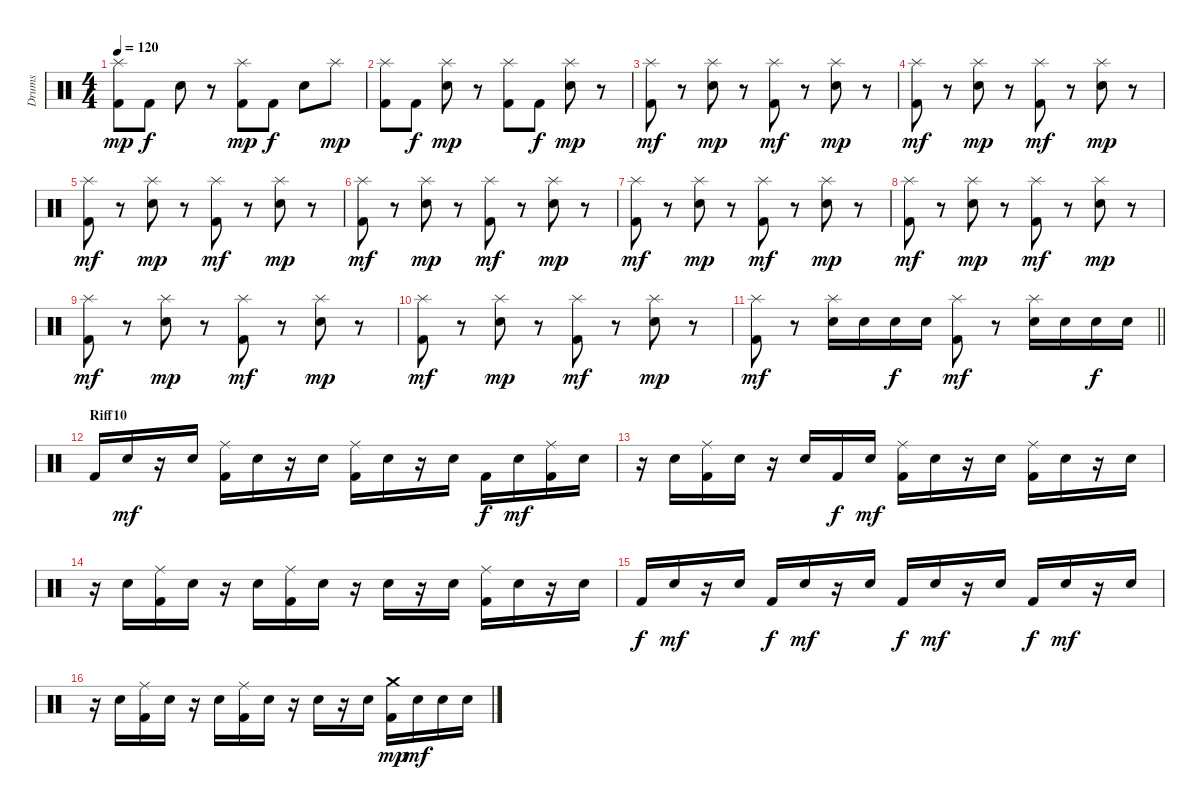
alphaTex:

\track ("Drums" "Drums") {instrument percussion}
\staff {score}
\articulation defaults
\ts (4 4)
\tempo 120
\clef neutral
\ks c
("Kick (hit) 2" "Splash (hit)").8{dy mp} "Kick (hit) 2".8{dy f} "Snare (hit) 2".8 r.8 ("Kick (hit) 2" "Splash (hit)").8{dy mp} "Kick (hit) 2".8{dy f} "Snare (hit) 2".8 "Splash (hit)".8{dy mp} |
("Kick (hit) 2" "Splash (hit)").8 "Kick (hit) 2".8{dy f} ("Splash (hit)" "Snare (hit) 2").8{dy mp} r.8 ("Kick (hit) 2" "Splash (hit)").8 "Kick (hit) 2".8{dy f} ("Splash (hit)" "Snare (hit) 2").8{dy mp} r.8 |
("Kick (hit) 2" "Splash (hit)").8{dy mf} r.8 ("Splash (hit)" "Snare (hit) 2").8{dy mp} r.8 ("Kick (hit) 2" "Splash (hit)").8{dy mf} r.8 ("Splash (hit)" "Snare (hit) 2").8{dy mp} r.8 |
("Kick (hit) 2" "Splash (hit)").8{dy mf} r.8 ("Splash (hit)" "Snare (hit) 2").8{dy mp} r.8 ("Kick (hit) 2" "Splash (hit)").8{dy mf} r.8 ("Splash (hit)" "Snare (hit) 2").8{dy mp} r.8 |
("Kick (hit) 2" "Splash (hit)").8{dy mf} r.8 ("Splash (hit)" "Snare (hit) 2").8{dy mp} r.8 ("Kick (hit) 2" "Splash (hit)").8{dy mf} r.8 ("Splash (hit)" "Snare (hit) 2").8{dy mp} r.8 |
("Kick (hit) 2" "Splash (hit)").8{dy mf} r.8 ("Splash (hit)" "Snare (hit) 2").8{dy mp} r.8 ("Kick (hit) 2" "Splash (hit)").8{dy mf} r.8 ("Splash (hit)" "Snare (hit) 2").8{dy mp} r.8 |
("Kick (hit) 2" "Splash (hit)").8{dy mf} r.8 ("Splash (hit)" "Snare (hit) 2").8{dy mp} r.8 ("Kick (hit) 2" "Splash (hit)").8{dy mf} r.8 ("Splash (hit)" "Snare (hit) 2").8{dy mp} r.8 |
("Kick (hit) 2" "Splash (hit)").8{dy mf} r.8 ("Splash (hit)" "Snare (hit) 2").8{dy mp} r.8 ("Kick (hit) 2" "Splash (hit)").8{dy mf} r.8 ("Splash (hit)" "Snare (hit) 2").8{dy mp} r.8 |
("Kick (hit) 2" "Splash (hit)").8{dy mf} r.8 ("Splash (hit)" "Snare (hit) 2").8{dy mp} r.8 ("Kick (hit) 2" "Splash (hit)").8{dy mf} r.8 ("Splash (hit)" "Snare (hit) 2").8{dy mp} r.8 |
("Kick (hit) 2" "Splash (hit)").8{dy mf} r.8 ("Splash (hit)" "Snare (hit) 2").8{dy mp} r.8 ("Kick (hit) 2" "Splash (hit)").8{dy mf} r.8 ("Splash (hit)" "Snare (hit) 2").8{dy mp} r.8 |
\barLineRight lightlight
("Kick (hit) 2" "Splash (hit)").8{dy mf} r.8 ("Splash (hit)" "Snare (hit) 2").16 "Snare (hit) 2".16 "Snare (hit) 2".16{dy f} "Snare (hit) 2".16 ("Kick (hit) 2" "Splash (hit)").8{dy mf} r.8 ("Splash (hit)" "Snare (hit) 2").16 "Snare (hit) 2".16 "Snare (hit) 2".16{dy f} "Snare (hit) 2".16 |
\section ("" "Riff10")
"Kick (hit) 2".16 "Snare (hit) 2".16{dy mf} r.16 "Snare (hit) 2".16 ("Kick (hit) 2" "Ride (middle)").16 "Snare (hit) 2".16 r.16 "Snare (hit) 2".16 ("Kick (hit) 2" "Ride (middle)").16 "Snare (hit) 2".16 r.16 "Snare (hit) 2".16 "Kick (hit) 2".16{dy f} "Snare (hit) 2".16{dy mf} ("Kick (hit) 2" "Ride (middle)").16 "Snare (hit) 2".16 |
r.16 "Snare (hit) 2".16 ("Kick (hit) 2" "Ride (middle)").16 "Snare (hit) 2".16 r.16 "Snare (hit) 2".16 "Kick (hit) 2".16{dy f} "Snare (hit) 2".16{dy mf} ("Kick (hit) 2" "Ride (middle)").16 "Snare (hit) 2".16 r.16 "Snare (hit) 2".16 ("Kick (hit) 2" "Ride (middle)").16 "Snare (hit) 2".16 r.16 "Snare (hit) 2".16 |
r.16 "Snare (hit) 2".16 ("Kick (hit) 2" "Ride (middle)").16 "Snare (hit) 2".16 r.16 "Snare (hit) 2".16 ("Kick (hit) 2" "Ride (middle)").16 "Snare (hit) 2".16 r.16 "Snare (hit) 2".16 r.16 "Snare (hit) 2".16 ("Kick (hit) 2" "Ride (middle)").16 "Snare (hit) 2".16 r.16 "Snare (hit) 2".16 |
"Kick (hit) 2".16{dy f} "Snare (hit) 2".16{dy mf} r.16 "Snare (hit) 2".16 "Kick (hit) 2".16{dy f} "Snare (hit) 2".16{dy mf} r.16 "Snare (hit) 2".16 "Kick (hit) 2".16{dy f} "Snare (hit) 2".16{dy mf} r.16 "Snare (hit) 2".16 "Kick (hit) 2".16{dy f} "Snare (hit) 2".16{dy mf} r.16 "Snare (hit) 2".16 |
r.16 "Snare (hit) 2".16 ("Kick (hit) 2" "Ride (middle)").16 "Snare (hit) 2".16 r.16 "Snare (hit) 2".16 ("Kick (hit) 2" "Ride (middle)").16 "Snare (hit) 2".16 r.16 "Snare (hit) 2".16 r.16 "Snare (hit) 2".16 ("Kick (hit) 2" "Crash medium (hit)").16{dy mp} "Snare (hit) 2".16{dy mf} "Snare (hit) 2".16 "Snare (hit) 2".16
